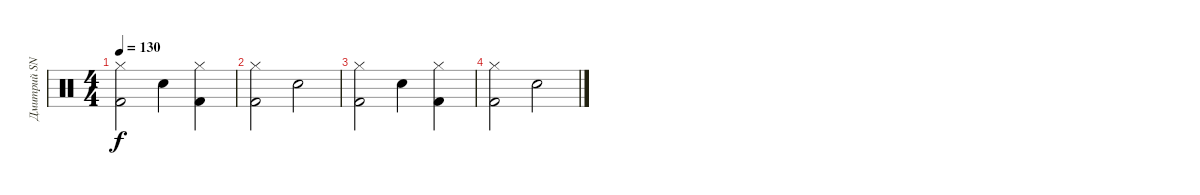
\track ("Дмитрий SNAKE Хакимов" "Дмитрий SN") {instrument percussion}
\staff {score}
\articulation defaults
\ts (4 4)
\tempo 130
\clef neutral
\ks c
("Hi-Hat (closed)" "Kick (hit) 2").2{dy f} "Hand Clap (hit)".4 ("Hi-Hat (closed)" "Kick (hit) 2").4 |
("Hi-Hat (closed)" "Kick (hit) 2").2 "Hand Clap (hit)".2 |
("Hi-Hat (closed)" "Kick (hit) 2").2 "Hand Clap (hit)".4 ("Hi-Hat (closed)" "Kick (hit) 2").4 |
("Hi-Hat (closed)" "Kick (hit) 2").2 "Hand Clap (hit)".2
